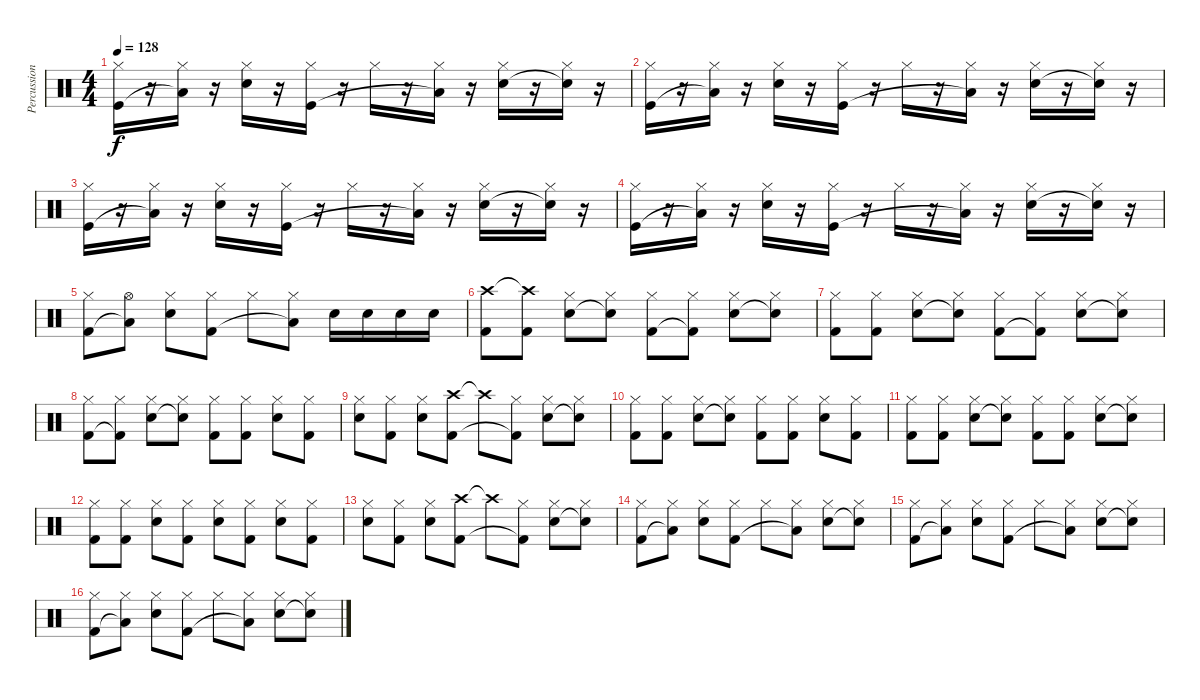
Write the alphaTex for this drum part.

\track ("Percussion" "Percussion") {instrument percussion}
\staff {score}
\articulation defaults
\ts (4 4)
\tempo 128
\clef neutral
\ks c
("Hi-Hat (closed)" "Kick (hit)").16{dy f} r.16 ("Hi-Hat (closed)" "Low Floor Tom (hit)"{t}).16 r.16 ("Hi-Hat (closed)" "Snare (hit) 2").16 r.16 ("Hi-Hat (closed)" "Kick (hit)").16 r.16 "Hi-Hat (closed)".16 r.16 ("Hi-Hat (closed)" "Low Floor Tom (hit)"{t}).16 r.16 ("Hi-Hat (closed)" "Snare (hit) 2").16 r.16 ("Hi-Hat (closed)" "Electric Snare (hit)"{t}).16 r.16 |
("Hi-Hat (closed)" "Kick (hit)").16 r.16 ("Hi-Hat (closed)" "Low Floor Tom (hit)"{t}).16 r.16 ("Hi-Hat (closed)" "Snare (hit) 2").16 r.16 ("Hi-Hat (closed)" "Kick (hit)").16 r.16 "Hi-Hat (closed)".16 r.16 ("Hi-Hat (closed)" "Low Floor Tom (hit)"{t}).16 r.16 ("Hi-Hat (closed)" "Snare (hit) 2").16 r.16 ("Hi-Hat (closed)" "Electric Snare (hit)"{t}).16 r.16 |
("Hi-Hat (closed)" "Kick (hit)").16 r.16 ("Hi-Hat (closed)" "Low Floor Tom (hit)"{t}).16 r.16 ("Hi-Hat (closed)" "Snare (hit) 2").16 r.16 ("Hi-Hat (closed)" "Kick (hit)").16 r.16 "Hi-Hat (closed)".16 r.16 ("Hi-Hat (closed)" "Low Floor Tom (hit)"{t}).16 r.16 ("Hi-Hat (closed)" "Snare (hit) 2").16 r.16 ("Hi-Hat (closed)" "Electric Snare (hit)"{t}).16 r.16 |
("Hi-Hat (closed)" "Kick (hit)").16 r.16 ("Hi-Hat (closed)" "Low Floor Tom (hit)"{t}).16 r.16 ("Hi-Hat (closed)" "Snare (hit) 2").16 r.16 ("Hi-Hat (closed)" "Kick (hit)").16 r.16 "Hi-Hat (closed)".16 r.16 ("Hi-Hat (closed)" "Low Floor Tom (hit)"{t}).16 r.16 ("Hi-Hat (closed)" "Snare (hit) 2").16 r.16 ("Hi-Hat (closed)" "Electric Snare (hit)"{t}).16 r.16 |
("Hi-Hat (closed)" "Kick (hit) 2").8 ("Hi-Hat (open)" "Low Floor Tom (hit)"{t}).8 ("Hi-Hat (closed)" "Snare (hit) 2").8 ("Hi-Hat (closed)" "Kick (hit) 2").8 "Hi-Hat (closed)".8 ("Hi-Hat (closed)" "Low Floor Tom (hit)"{t}).8 "Snare (hit) 2".16 "Snare (hit) 2".16 "Snare (hit) 2".16 "Snare (hit) 2".16 |
("Crash high (hit)" "Kick (hit) 2").8 ("Crash high (hit)"{t} "Kick (hit) 2").8 ("Hi-Hat (closed)" "Snare (hit) 2").8 ("Hi-Hat (closed)" "Electric Snare (hit)"{t}).8 ("Hi-Hat (closed)" "Kick (hit) 2").8 ("Hi-Hat (closed)" "Kick (hit) 2"{t}).8 ("Hi-Hat (closed)" "Snare (hit) 2").8 ("Hi-Hat (closed)" "Electric Snare (hit)"{t}).8 |
("Hi-Hat (closed)" "Kick (hit) 2").8 ("Hi-Hat (closed)" "Kick (hit) 2").8 ("Hi-Hat (closed)" "Snare (hit) 2").8 ("Hi-Hat (closed)" "Electric Snare (hit)"{t}).8 ("Hi-Hat (closed)" "Kick (hit) 2").8 ("Hi-Hat (closed)" "Kick (hit) 2"{t}).8 ("Hi-Hat (closed)" "Snare (hit) 2").8 ("Hi-Hat (closed)" "Electric Snare (hit)"{t}).8 |
("Hi-Hat (closed)" "Kick (hit) 2").8 ("Hi-Hat (closed)" "Kick (hit) 2"{t}).8 ("Hi-Hat (closed)" "Snare (hit) 2").8 ("Hi-Hat (closed)" "Electric Snare (hit)"{t}).8 ("Hi-Hat (closed)" "Kick (hit) 2").8 ("Hi-Hat (closed)" "Kick (hit) 2").8 ("Hi-Hat (closed)" "Snare (hit) 2").8 ("Hi-Hat (closed)" "Kick (hit) 2").8 |
("Hi-Hat (closed)" "Electric Snare (hit)").8 ("Hi-Hat (closed)" "Kick (hit) 2").8 ("Hi-Hat (closed)" "Snare (hit) 2").8 ("Crash high (hit)" "Kick (hit) 2").8 "Crash high (hit)"{t}.8 ("Hi-Hat (closed)" "Kick (hit) 2"{t}).8 ("Hi-Hat (closed)" "Snare (hit) 2").8 ("Hi-Hat (closed)" "Electric Snare (hit)"{t}).8 |
("Hi-Hat (closed)" "Kick (hit) 2").8 ("Hi-Hat (closed)" "Kick (hit) 2").8 ("Hi-Hat (closed)" "Snare (hit) 2").8 ("Hi-Hat (closed)" "Electric Snare (hit)"{t}).8 ("Hi-Hat (closed)" "Kick (hit) 2").8 ("Hi-Hat (closed)" "Kick (hit) 2").8 ("Hi-Hat (closed)" "Snare (hit) 2").8 ("Hi-Hat (closed)" "Kick (hit) 2").8 |
("Hi-Hat (closed)" "Kick (hit) 2").8 ("Hi-Hat (closed)" "Kick (hit) 2").8 ("Hi-Hat (closed)" "Snare (hit) 2").8 ("Hi-Hat (closed)" "Electric Snare (hit)"{t}).8 ("Hi-Hat (closed)" "Kick (hit) 2").8 ("Hi-Hat (closed)" "Kick (hit) 2").8 ("Hi-Hat (closed)" "Snare (hit) 2").8 ("Hi-Hat (closed)" "Electric Snare (hit)"{t}).8 |
("Hi-Hat (closed)" "Kick (hit) 2").8 ("Hi-Hat (closed)" "Kick (hit) 2").8 ("Hi-Hat (closed)" "Snare (hit) 2").8 ("Hi-Hat (closed)" "Kick (hit) 2").8 ("Hi-Hat (closed)" "Snare (hit) 2").8 ("Hi-Hat (closed)" "Kick (hit) 2").8 ("Hi-Hat (closed)" "Snare (hit) 2").8 ("Hi-Hat (closed)" "Kick (hit) 2").8 |
("Hi-Hat (closed)" "Snare (hit) 2").8 ("Hi-Hat (closed)" "Kick (hit) 2").8 ("Hi-Hat (closed)" "Snare (hit) 2").8 ("Crash high (hit)" "Kick (hit) 2").8 "Crash high (hit)"{t}.8 ("Hi-Hat (closed)" "Kick (hit) 2"{t}).8 ("Hi-Hat (closed)" "Snare (hit) 2").8 ("Hi-Hat (closed)" "Electric Snare (hit)"{t}).8 |
("Hi-Hat (closed)" "Kick (hit) 2").8 ("Hi-Hat (closed)" "Low Floor Tom (hit)"{t}).8 ("Hi-Hat (closed)" "Snare (hit) 2").8 ("Hi-Hat (closed)" "Kick (hit) 2").8 "Hi-Hat (closed)".8 ("Hi-Hat (closed)" "Low Floor Tom (hit)"{t}).8 ("Hi-Hat (closed)" "Snare (hit) 2").8 ("Hi-Hat (closed)" "Electric Snare (hit)"{t}).8 |
("Hi-Hat (closed)" "Kick (hit) 2").8 ("Hi-Hat (closed)" "Low Floor Tom (hit)"{t}).8 ("Hi-Hat (closed)" "Snare (hit) 2").8 ("Hi-Hat (closed)" "Kick (hit) 2").8 "Hi-Hat (closed)".8 ("Hi-Hat (closed)" "Low Floor Tom (hit)"{t}).8 ("Hi-Hat (closed)" "Snare (hit) 2").8 ("Hi-Hat (closed)" "Electric Snare (hit)"{t}).8 |
("Hi-Hat (closed)" "Kick (hit) 2").8 ("Hi-Hat (closed)" "Low Floor Tom (hit)"{t}).8 ("Hi-Hat (closed)" "Snare (hit) 2").8 ("Hi-Hat (closed)" "Kick (hit) 2").8 "Hi-Hat (closed)".8 ("Hi-Hat (closed)" "Low Floor Tom (hit)"{t}).8 ("Hi-Hat (closed)" "Snare (hit) 2").8 ("Hi-Hat (closed)" "Electric Snare (hit)"{t}).8
